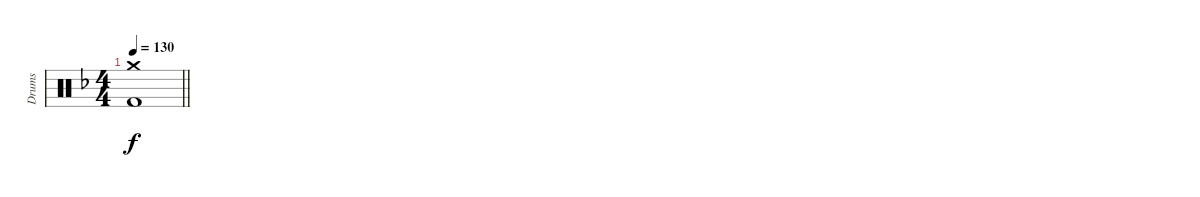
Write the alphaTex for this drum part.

\track ("Drums" "Drums") {instrument percussion}
\staff {score}
\articulation defaults
\ts (4 4)
\tempo 130
\clef neutral
\barLineRight lightlight
\ks dminor
("Crash medium (hit)" "Kick (hit) 2").1{dy f}
